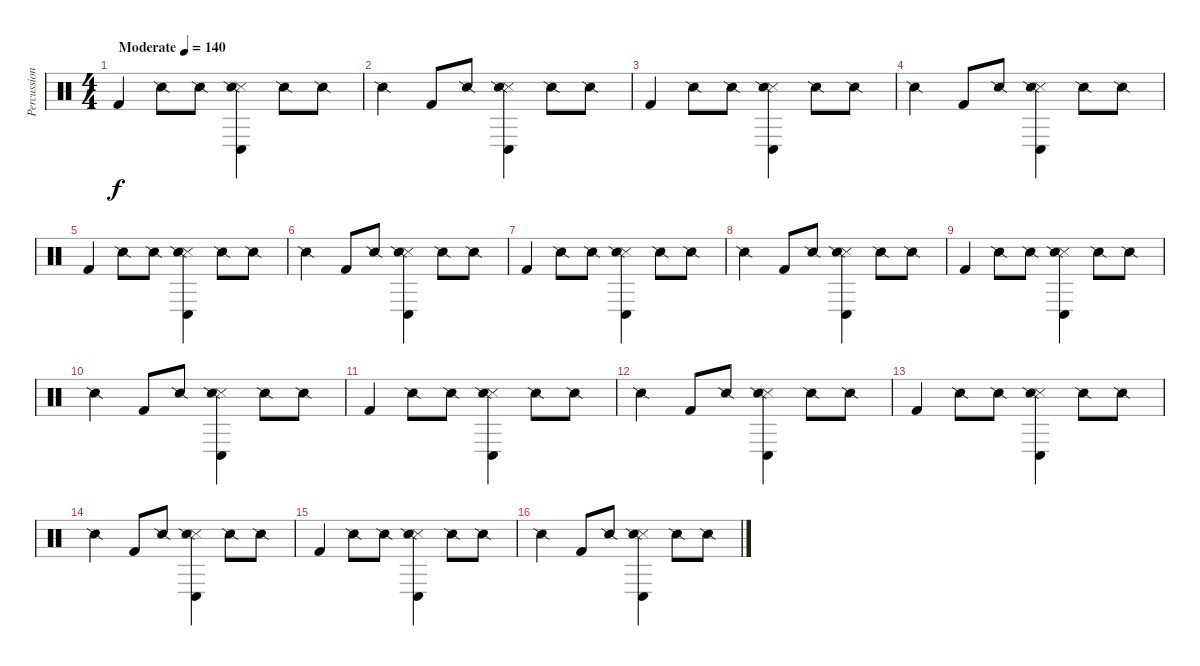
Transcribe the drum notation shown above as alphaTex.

\track ("Percussion" "Percussion") {instrument percussion}
\staff {score}
\articulation defaults
\ts (4 4)
\tempo (140 "Moderate")
\clef neutral
\ks c "Kick (hit) 2".4{dy f} "Snare (side stick) 2".8 "Snare (side stick) 2".8
("Conga low (hit)" "Snare (side stick) 3" "Snare (side stick) 2").4 "Snare (side stick) 2".8 "Snare (side stick) 2".8 |
"Snare (side stick) 2".4 "Kick (hit) 2".8 "Snare (side stick) 2".8 ("Conga low (hit)" "Snare (side stick) 3" "Snare (side stick) 2").4 "Snare (side stick) 2".8 "Snare (side stick) 2".8 |
"Kick (hit) 2".4 "Snare (side stick) 2".8 "Snare (side stick) 2".8 ("Conga low (hit)" "Snare (side stick) 3" "Snare (side stick) 2").4 "Snare (side stick) 2".8 "Snare (side stick) 2".8 |
"Snare (side stick) 2".4 "Kick (hit) 2".8 "Snare (side stick) 2".8 ("Conga low (hit)" "Snare (side stick) 3" "Snare (side stick) 2").4 "Snare (side stick) 2".8 "Snare (side stick) 2".8 |
"Kick (hit) 2".4 "Snare (side stick) 2".8 "Snare (side stick) 2".8 ("Conga low (hit)" "Snare (side stick) 3" "Snare (side stick) 2").4 "Snare (side stick) 2".8 "Snare (side stick) 2".8 |
"Snare (side stick) 2".4 "Kick (hit) 2".8 "Snare (side stick) 2".8 ("Conga low (hit)" "Snare (side stick) 3" "Snare (side stick) 2").4 "Snare (side stick) 2".8 "Snare (side stick) 2".8 |
"Kick (hit) 2".4 "Snare (side stick) 2".8 "Snare (side stick) 2".8 ("Conga low (hit)" "Snare (side stick) 3" "Snare (side stick) 2").4 "Snare (side stick) 2".8 "Snare (side stick) 2".8 |
"Snare (side stick) 2".4 "Kick (hit) 2".8 "Snare (side stick) 2".8 ("Conga low (hit)" "Snare (side stick) 3" "Snare (side stick) 2").4 "Snare (side stick) 2".8 "Snare (side stick) 2".8 |
"Kick (hit) 2".4 "Snare (side stick) 2".8 "Snare (side stick) 2".8 ("Conga low (hit)" "Snare (side stick) 3" "Snare (side stick) 2").4 "Snare (side stick) 2".8 "Snare (side stick) 2".8 |
"Snare (side stick) 2".4 "Kick (hit) 2".8 "Snare (side stick) 2".8 ("Conga low (hit)" "Snare (side stick) 3" "Snare (side stick) 2").4 "Snare (side stick) 2".8 "Snare (side stick) 2".8 |
"Kick (hit) 2".4 "Snare (side stick) 2".8 "Snare (side stick) 2".8 ("Conga low (hit)" "Snare (side stick) 3" "Snare (side stick) 2").4 "Snare (side stick) 2".8 "Snare (side stick) 2".8 |
"Snare (side stick) 2".4 "Kick (hit) 2".8 "Snare (side stick) 2".8 ("Conga low (hit)" "Snare (side stick) 3" "Snare (side stick) 2").4 "Snare (side stick) 2".8 "Snare (side stick) 2".8 |
"Kick (hit) 2".4 "Snare (side stick) 2".8 "Snare (side stick) 2".8 ("Conga low (hit)" "Snare (side stick) 3" "Snare (side stick) 2").4 "Snare (side stick) 2".8 "Snare (side stick) 2".8 |
"Snare (side stick) 2".4 "Kick (hit) 2".8 "Snare (side stick) 2".8 ("Conga low (hit)" "Snare (side stick) 3" "Snare (side stick) 2").4 "Snare (side stick) 2".8 "Snare (side stick) 2".8 |
"Kick (hit) 2".4 "Snare (side stick) 2".8 "Snare (side stick) 2".8 ("Conga low (hit)" "Snare (side stick) 3" "Snare (side stick) 2").4 "Snare (side stick) 2".8 "Snare (side stick) 2".8 |
"Snare (side stick) 2".4 "Kick (hit) 2".8 "Snare (side stick) 2".8 ("Conga low (hit)" "Snare (side stick) 3" "Snare (side stick) 2").4 "Snare (side stick) 2".8 "Snare (side stick) 2".8
